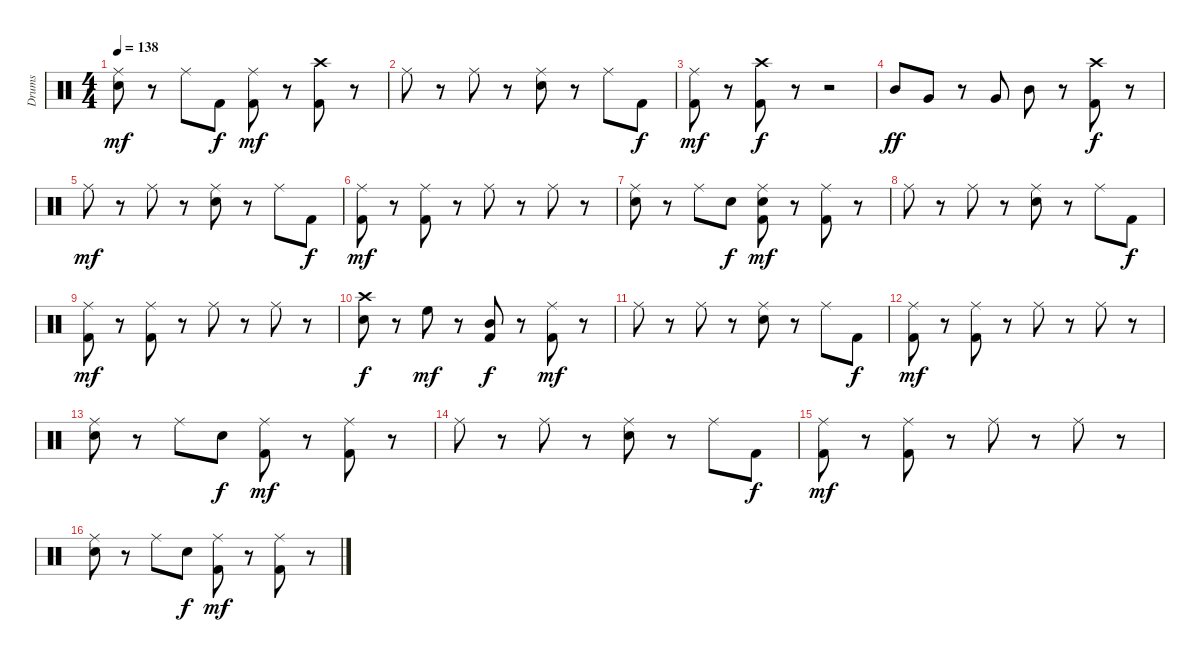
\track ("Drums" "Drums") {instrument percussion}
\staff {score}
\articulation defaults
\ts (4 4)
\tempo 138
\clef neutral
\ks c
("Ride (middle)" "Snare (hit) 2").8{dy mf} r.8 "Ride (middle)".8 "Kick (hit) 2".8{dy f} ("Ride (middle)" "Kick (hit) 2").8{dy mf} r.8 ("Crash high (hit)" "Kick (hit) 2").8 r.8 |
"Ride (middle)".8 r.8 "Ride (middle)".8 r.8 ("Ride (middle)" "Snare (hit) 2").8 r.8 "Ride (middle)".8 "Kick (hit) 2".8{dy f} |
("Ride (middle)" "Kick (hit) 2").8{dy mf} r.8 ("Crash high (hit)" "Kick (hit) 2").8{dy f} r.8 r.2 |
"Mid Tom (hit)".8{dy ff} "Very Low Tom (hit)".8 r.8 "Very Low Tom (hit)".8 "Mid Tom (hit)".8 r.8 ("Crash high (hit)" "Kick (hit) 2").8{dy f} r.8 |
"Ride (middle)".8{dy mf} r.8 "Ride (middle)".8 r.8 ("Ride (middle)" "Snare (hit) 2").8 r.8 "Ride (middle)".8 "Kick (hit) 2".8{dy f} |
("Ride (middle)" "Kick (hit) 2").8{dy mf} r.8 ("Ride (middle)" "Kick (hit) 2").8 r.8 "Ride (middle)".8 r.8 "Ride (middle)".8 r.8 |
("Ride (middle)" "Snare (hit) 2").8 r.8 "Ride (middle)".8 "Snare (hit) 2".8{dy f} ("Ride (middle)" "Snare (hit) 2" "Kick (hit) 2").8{dy mf} r.8 ("Ride (middle)" "Kick (hit) 2").8 r.8 |
"Ride (middle)".8 r.8 "Ride (middle)".8 r.8 ("Ride (middle)" "Snare (hit) 2").8 r.8 "Ride (middle)".8 "Kick (hit) 2".8{dy f} |
("Ride (middle)" "Kick (hit) 2").8{dy mf} r.8 ("Ride (middle)" "Kick (hit) 2").8 r.8 "Ride (middle)".8 r.8 "Ride (middle)".8 r.8 |
("Crash high (hit)" "Snare (hit) 2").8{dy f} r.8 "High Floor Tom (hit)".8{dy mf} r.8 ("Mid Tom (hit)" "Kick (hit) 2").8{dy f} r.8 ("Ride (middle)" "Kick (hit) 2").8{dy mf} r.8 |
"Ride (middle)".8 r.8 "Ride (middle)".8 r.8 ("Ride (middle)" "Snare (hit) 2").8 r.8 "Ride (middle)".8 "Kick (hit) 2".8{dy f} |
("Ride (middle)" "Kick (hit) 2").8{dy mf} r.8 ("Ride (middle)" "Kick (hit) 2").8 r.8 "Ride (middle)".8 r.8 "Ride (middle)".8 r.8 |
("Ride (middle)" "Snare (hit) 2").8 r.8 "Ride (middle)".8 "Snare (hit) 2".8{dy f} ("Ride (middle)" "Kick (hit) 2").8{dy mf} r.8 ("Ride (middle)" "Kick (hit) 2").8 r.8 |
"Ride (middle)".8 r.8 "Ride (middle)".8 r.8 ("Ride (middle)" "Snare (hit) 2").8 r.8 "Ride (middle)".8 "Kick (hit) 2".8{dy f} |
("Ride (middle)" "Kick (hit) 2").8{dy mf} r.8 ("Ride (middle)" "Kick (hit) 2").8 r.8 "Ride (middle)".8 r.8 "Ride (middle)".8 r.8 |
("Ride (middle)" "Snare (hit) 2").8 r.8 "Ride (middle)".8 "Snare (hit) 2".8{dy f} ("Ride (middle)" "Kick (hit) 2").8{dy mf} r.8 ("Ride (middle)" "Kick (hit) 2").8 r.8
